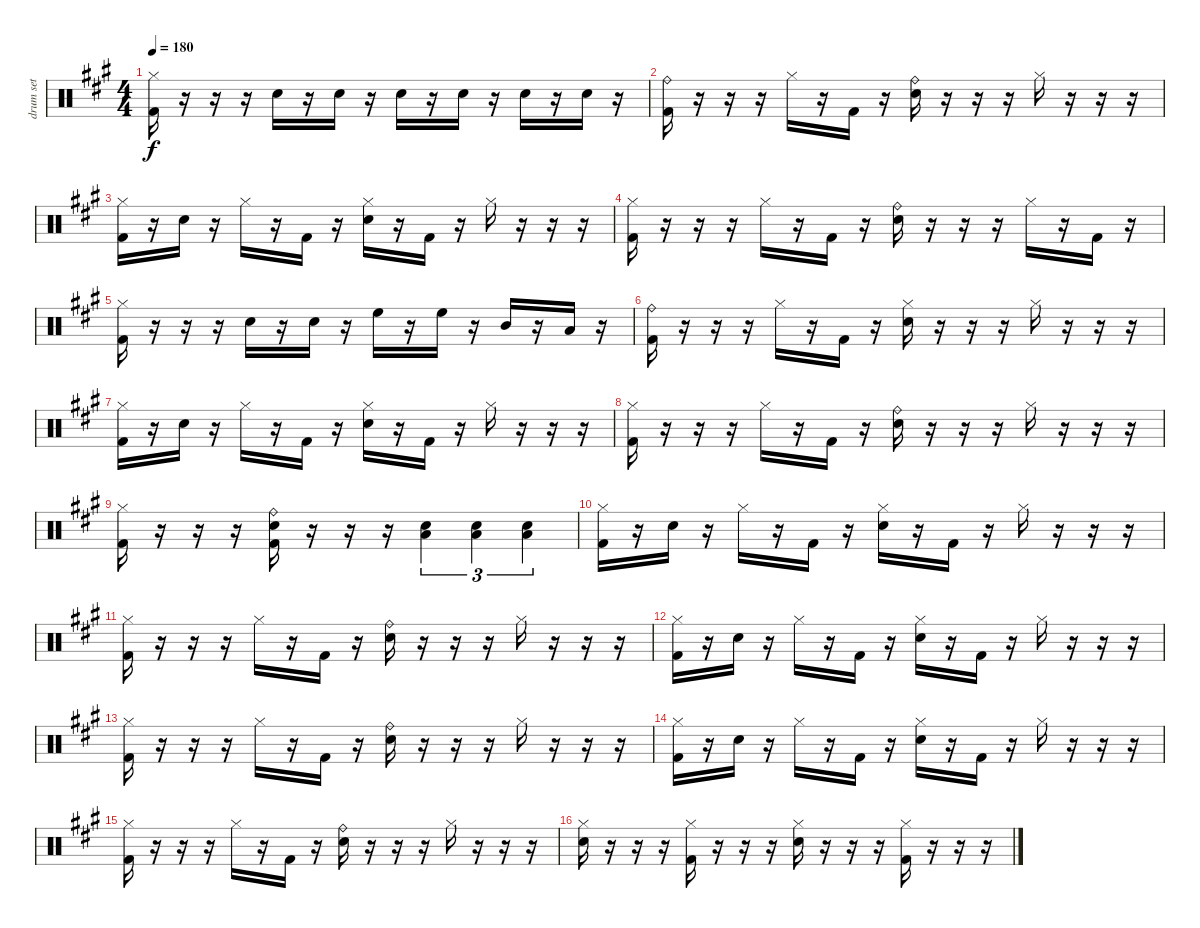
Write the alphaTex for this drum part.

\track ("drum set" "drum set") {instrument percussion}
\staff {score}
\articulation defaults
\ts (4 4)
\tempo 180
\clef neutral
\ks a
("Hi-Hat (closed)" "Kick (hit) 2").16{dy f} r.16 r.16 r.16 "Snare (hit) 2".16 r.16 "Snare (hit) 2".16 r.16 "Snare (hit) 2".16 r.16 "Snare (hit) 2".16 r.16 "Snare (hit) 2".16 r.16 "Snare (hit) 2".16 r.16 |
("Ride (bell)" "Kick (hit) 2").16 r.16 r.16 r.16 "Hi-Hat (closed)".16 r.16 "Kick (hit) 2".16 r.16 ("Ride (bell)" "Snare (hit) 2").16 r.16 r.16 r.16 "Hi-Hat (closed)".16 r.16 r.16 r.16 |
("Hi-Hat (closed)" "Kick (hit) 2").16 r.16 "Snare (hit) 2".16 r.16 "Hi-Hat (closed)".16 r.16 "Kick (hit) 2".16 r.16 ("Hi-Hat (closed)" "Snare (hit) 2").16 r.16 "Kick (hit) 2".16 r.16 "Hi-Hat (closed)".16 r.16 r.16 r.16 |
("Hi-Hat (closed)" "Kick (hit) 2").16 r.16 r.16 r.16 "Hi-Hat (closed)".16 r.16 "Kick (hit) 2".16 r.16 ("Ride (bell)" "Snare (hit) 2").16 r.16 r.16 r.16 "Hi-Hat (closed)".16 r.16 "Kick (hit) 2".16 r.16 |
("Hi-Hat (closed)" "Kick (hit) 2").16 r.16 r.16 r.16 "Snare (hit) 2".16 r.16 "Snare (hit) 2".16 r.16 "High Floor Tom (hit)".16 r.16 "High Floor Tom (hit)".16 r.16 "Mid Tom (hit)".16 r.16 "Low Tom (hit)".16 r.16 |
("Ride (bell)" "Kick (hit) 2").16 r.16 r.16 r.16 "Hi-Hat (closed)".16 r.16 "Kick (hit) 2".16 r.16 ("Hi-Hat (closed)" "Snare (hit) 2").16 r.16 r.16 r.16 "Hi-Hat (closed)".16 r.16 r.16 r.16 |
("Hi-Hat (closed)" "Kick (hit) 2").16 r.16 "Snare (hit) 2".16 r.16 "Hi-Hat (closed)".16 r.16 "Kick (hit) 2".16 r.16 ("Hi-Hat (closed)" "Snare (hit) 2").16 r.16 "Kick (hit) 2".16 r.16 "Hi-Hat (closed)".16 r.16 r.16 r.16 |
("Hi-Hat (closed)" "Kick (hit) 2").16 r.16 r.16 r.16 "Hi-Hat (closed)".16 r.16 "Kick (hit) 2".16 r.16 ("Ride (bell)" "Snare (hit) 2").16 r.16 r.16 r.16 "Hi-Hat (closed)".16 r.16 r.16 r.16 |
("Hi-Hat (closed)" "Kick (hit) 2").16 r.16 r.16 r.16 ("Ride (bell)" "Snare (hit) 2" "Kick (hit) 2").16 r.16 r.16 r.16 ("Snare (hit) 2" "Low Tom (hit)").4{tu (3 2)} ("Snare (hit) 2" "Low Tom (hit)").4{tu (3 2)} ("Snare (hit) 2" "Low Tom (hit)").4{tu (3 2)} |
("Hi-Hat (closed)" "Kick (hit) 2").16 r.16 "Snare (hit) 2".16 r.16 "Hi-Hat (closed)".16 r.16 "Kick (hit) 2".16 r.16 ("Hi-Hat (closed)" "Snare (hit) 2").16 r.16 "Kick (hit) 2".16 r.16 "Hi-Hat (closed)".16 r.16 r.16 r.16 |
("Hi-Hat (closed)" "Kick (hit) 2").16 r.16 r.16 r.16 "Hi-Hat (closed)".16 r.16 "Kick (hit) 2".16 r.16 ("Ride (bell)" "Snare (hit) 2").16 r.16 r.16 r.16 "Hi-Hat (closed)".16 r.16 r.16 r.16 |
("Hi-Hat (closed)" "Kick (hit) 2").16 r.16 "Snare (hit) 2".16 r.16 "Hi-Hat (closed)".16 r.16 "Kick (hit) 2".16 r.16 ("Hi-Hat (closed)" "Snare (hit) 2").16 r.16 "Kick (hit) 2".16 r.16 "Hi-Hat (closed)".16 r.16 r.16 r.16 |
("Hi-Hat (closed)" "Kick (hit) 2").16 r.16 r.16 r.16 "Hi-Hat (closed)".16 r.16 "Kick (hit) 2".16 r.16 ("Ride (bell)" "Snare (hit) 2").16 r.16 r.16 r.16 "Hi-Hat (closed)".16 r.16 r.16 r.16 |
("Hi-Hat (closed)" "Kick (hit) 2").16 r.16 "Snare (hit) 2".16 r.16 "Hi-Hat (closed)".16 r.16 "Kick (hit) 2".16 r.16 ("Hi-Hat (closed)" "Snare (hit) 2").16 r.16 "Kick (hit) 2".16 r.16 "Hi-Hat (closed)".16 r.16 r.16 r.16 |
("Hi-Hat (closed)" "Kick (hit) 2").16 r.16 r.16 r.16 "Hi-Hat (closed)".16 r.16 "Kick (hit) 2".16 r.16 ("Ride (bell)" "Snare (hit) 2").16 r.16 r.16 r.16 "Hi-Hat (closed)".16 r.16 r.16 r.16 |
("Hi-Hat (closed)" "Snare (hit) 2").16 r.16 r.16 r.16 ("Hi-Hat (closed)" "Kick (hit) 2").16 r.16 r.16 r.16 ("Hi-Hat (closed)" "Snare (hit) 2").16 r.16 r.16 r.16 ("Hi-Hat (closed)" "Kick (hit) 2").16 r.16 r.16 r.16
